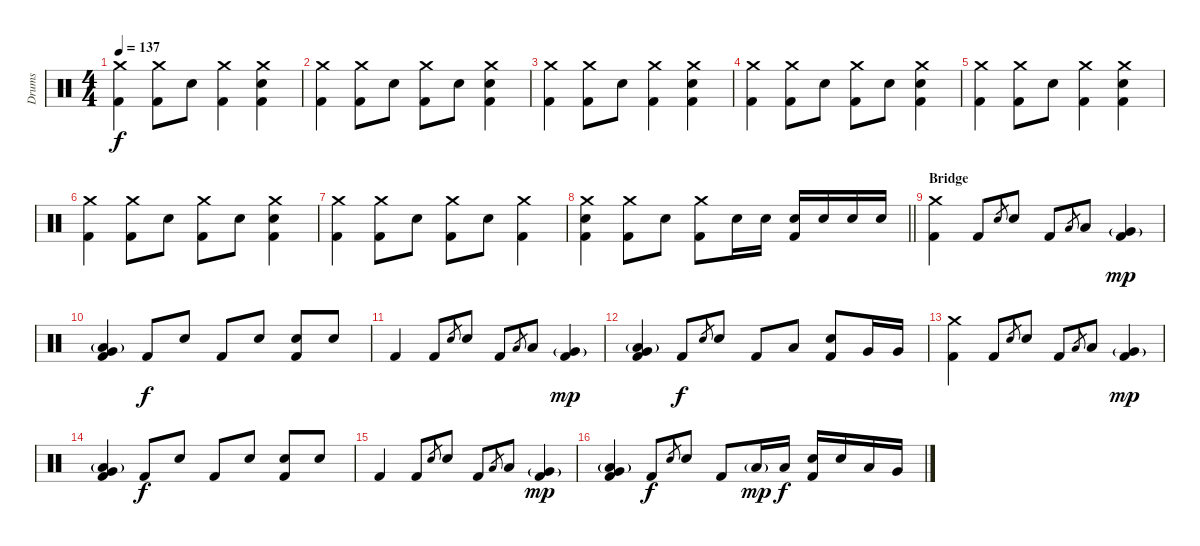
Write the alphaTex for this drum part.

\track ("Drums" "Drums") {instrument percussion}
\staff {score}
\articulation defaults
\ts (4 4)
\tempo 137
\clef neutral
\ks c
("Crash medium (hit)" "Kick (hit) 2").4{dy f} ("Crash medium (hit)" "Kick (hit) 2").8 "Electric Snare (hit)".8 ("Crash medium (hit)" "Kick (hit) 2").4 ("Crash medium (hit)" "Electric Snare (hit)" "Kick (hit) 2").4 |
("Crash medium (hit)" "Kick (hit) 2").4 ("Crash medium (hit)" "Kick (hit) 2").8 "Electric Snare (hit)".8 ("Crash medium (hit)" "Kick (hit) 2").8 "Electric Snare (hit)".8 ("Crash medium (hit)" "Electric Snare (hit)" "Kick (hit) 2").4 |
("Crash medium (hit)" "Kick (hit) 2").4 ("Crash medium (hit)" "Kick (hit) 2").8 "Electric Snare (hit)".8 ("Crash medium (hit)" "Kick (hit) 2").4 ("Crash medium (hit)" "Electric Snare (hit)" "Kick (hit) 2").4 |
("Crash medium (hit)" "Kick (hit) 2").4 ("Crash medium (hit)" "Kick (hit) 2").8 "Electric Snare (hit)".8 ("Crash medium (hit)" "Kick (hit) 2").8 "Electric Snare (hit)".8 ("Crash medium (hit)" "Electric Snare (hit)" "Kick (hit) 2").4 |
("Crash medium (hit)" "Kick (hit) 2").4 ("Crash medium (hit)" "Kick (hit) 2").8 "Electric Snare (hit)".8 ("Crash medium (hit)" "Kick (hit) 2").4 ("Crash medium (hit)" "Electric Snare (hit)" "Kick (hit) 2").4 |
("Crash medium (hit)" "Kick (hit) 2").4 ("Crash medium (hit)" "Kick (hit) 2").8 "Electric Snare (hit)".8 ("Crash medium (hit)" "Kick (hit) 2").8 "Electric Snare (hit)".8 ("Crash medium (hit)" "Electric Snare (hit)" "Kick (hit) 2").4 |
("Crash medium (hit)" "Kick (hit) 2").4 ("Crash medium (hit)" "Kick (hit) 2").8 "Electric Snare (hit)".8 ("Crash medium (hit)" "Kick (hit) 2").8 "Electric Snare (hit)".8 ("Crash medium (hit)" "Kick (hit) 2").4 |
\barLineRight lightlight
("Crash medium (hit)" "Electric Snare (hit)" "Kick (hit) 2").4 ("Crash medium (hit)" "Kick (hit) 2").8 "Electric Snare (hit)".8 ("Crash medium (hit)" "Kick (hit) 2").8 "Electric Snare (hit)".16 "Electric Snare (hit)".16 ("Electric Snare (hit)" "Kick (hit) 2").16 "Electric Snare (hit)".16 "Electric Snare (hit)".16 "Electric Snare (hit)".16 |
\section ("" "Bridge")
("Crash medium (hit)" "Kick (hit) 2").4 "Kick (hit) 2".8 "Electric Snare (hit)".8{gr} "Electric Snare (hit)".8 "Kick (hit) 2".8 "Low Tom (hit)".8{gr} "Low Tom (hit)".8 ("Very Low Tom (hit)"{g} "Kick (hit) 2").4{dy mp} |
("Low Floor Tom (hit)"{g} "Very Low Tom (hit)" "Kick (hit) 2").4 "Kick (hit) 2".8{dy f} "Electric Snare (hit)".8 "Kick (hit) 2".8 "Electric Snare (hit)".8 ("Electric Snare (hit)" "Kick (hit) 2").8 "Electric Snare (hit)".8 |
"Kick (hit) 2".4 "Kick (hit) 2".8 "Electric Snare (hit)".8{gr} "Electric Snare (hit)".8 "Kick (hit) 2".8 "Low Tom (hit)".8{gr} "Low Tom (hit)".8 ("Very Low Tom (hit)"{g} "Kick (hit) 2").4{dy mp} |
("Low Floor Tom (hit)"{g} "Very Low Tom (hit)" "Kick (hit) 2").4 "Kick (hit) 2".8{dy f} "Electric Snare (hit)".8{gr} "Electric Snare (hit)".8 "Kick (hit) 2".8 "Low Tom (hit)".8 ("Electric Snare (hit)" "Kick (hit) 2").8 "Very Low Tom (hit)".16 "Very Low Tom (hit)".16 |
("Crash medium (hit)" "Kick (hit) 2").4 "Kick (hit) 2".8 "Electric Snare (hit)".8{gr} "Electric Snare (hit)".8 "Kick (hit) 2".8 "Low Tom (hit)".8{gr} "Low Tom (hit)".8 ("Very Low Tom (hit)"{g} "Kick (hit) 2").4{dy mp} |
("Low Floor Tom (hit)"{g} "Very Low Tom (hit)" "Kick (hit) 2").4 "Kick (hit) 2".8{dy f} "Electric Snare (hit)".8 "Kick (hit) 2".8 "Electric Snare (hit)".8 ("Electric Snare (hit)" "Kick (hit) 2").8 "Electric Snare (hit)".8 |
"Kick (hit) 2".4 "Kick (hit) 2".8 "Electric Snare (hit)".8{gr} "Electric Snare (hit)".8 "Kick (hit) 2".8 "Low Tom (hit)".8{gr} "Low Tom (hit)".8 ("Very Low Tom (hit)"{g} "Kick (hit) 2").4{dy mp} |
("Low Floor Tom (hit)"{g} "Very Low Tom (hit)" "Kick (hit) 2").4 "Kick (hit) 2".8{dy f} "Electric Snare (hit)".8{gr} "Electric Snare (hit)".8 "Kick (hit) 2".8 "Low Tom (hit)"{g}.16{dy mp} "Low Tom (hit)".16{dy f} ("Electric Snare (hit)" "Kick (hit) 2").16 "Electric Snare (hit)".16 "Low Tom (hit)".16 "Very Low Tom (hit)".16
